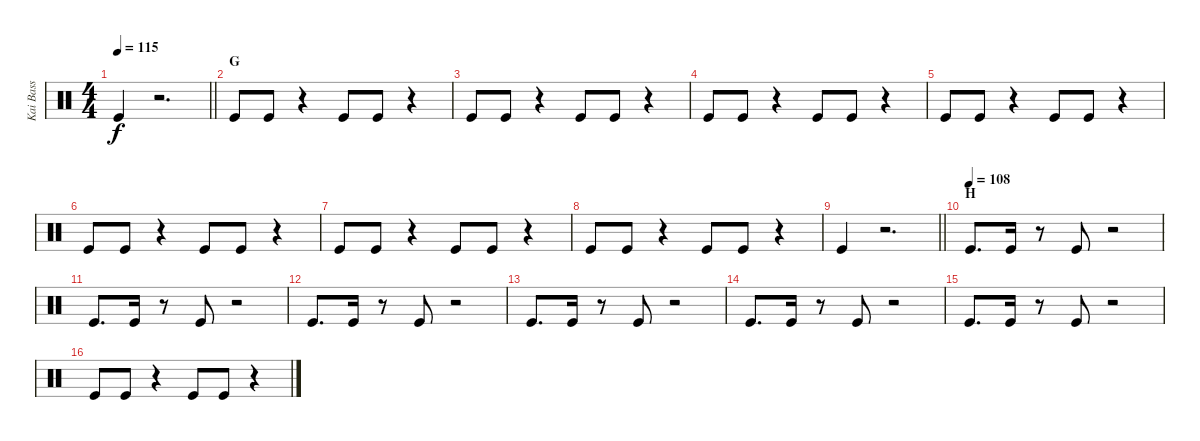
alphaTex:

\track ("Kai Bass" "Kai Bass") {instrument percussion}
\staff {score}
\articulation defaults
\ts (4 4)
\tempo 115
\clef neutral
\barLineRight lightlight
\ks c "Kick (hit)".4{dy f}
r.2{d} |
\section ("" "G")
"Kick (hit)".8 "Kick (hit)".8 r.4 "Kick (hit)".8 "Kick (hit)".8 r.4 |
"Kick (hit)".8 "Kick (hit)".8 r.4 "Kick (hit)".8 "Kick (hit)".8 r.4 |
"Kick (hit)".8 "Kick (hit)".8 r.4 "Kick (hit)".8 "Kick (hit)".8 r.4 |
"Kick (hit)".8 "Kick (hit)".8 r.4 "Kick (hit)".8 "Kick (hit)".8 r.4 |
"Kick (hit)".8 "Kick (hit)".8 r.4 "Kick (hit)".8 "Kick (hit)".8 r.4 |
"Kick (hit)".8 "Kick (hit)".8 r.4 "Kick (hit)".8 "Kick (hit)".8 r.4 |
"Kick (hit)".8 "Kick (hit)".8 r.4 "Kick (hit)".8 "Kick (hit)".8 r.4 |
\barLineRight lightlight "Kick (hit)".4
r.2{d} |
\section ("" "H")
\tempo (108)
"Kick (hit)".8{d} "Kick (hit)".16 r.8 "Kick (hit)".8 r.2 |
"Kick (hit)".8{d} "Kick (hit)".16 r.8 "Kick (hit)".8 r.2 |
"Kick (hit)".8{d} "Kick (hit)".16 r.8 "Kick (hit)".8 r.2 |
"Kick (hit)".8{d} "Kick (hit)".16 r.8 "Kick (hit)".8 r.2 |
"Kick (hit)".8{d} "Kick (hit)".16 r.8 "Kick (hit)".8 r.2 |
"Kick (hit)".8{d} "Kick (hit)".16 r.8 "Kick (hit)".8 r.2 |
"Kick (hit)".8 "Kick (hit)".8 r.4 "Kick (hit)".8 "Kick (hit)".8 r.4
